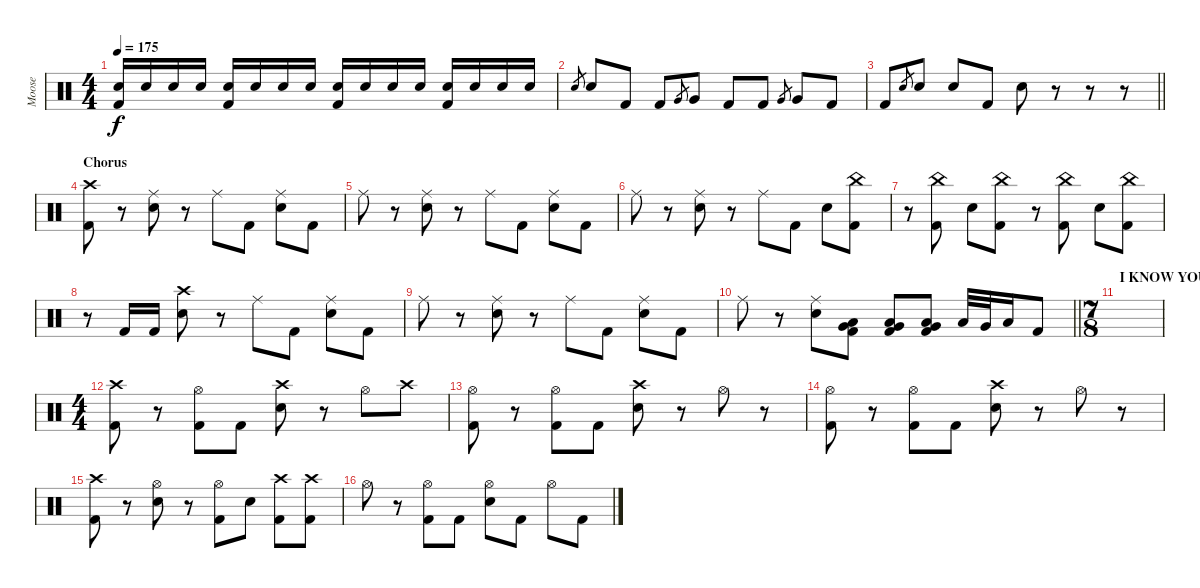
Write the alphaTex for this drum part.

\track ("Moose" "Moose") {instrument percussion}
\staff {score}
\articulation defaults
\ts (4 4)
\tempo 175
\clef neutral
\ks c
("Electric Snare (hit)" "Kick (hit) 2").16{dy f} "Electric Snare (hit)".16 "Electric Snare (hit)".16 "Electric Snare (hit)".16 ("Electric Snare (hit)" "Kick (hit) 2").16 "Electric Snare (hit)".16 "Electric Snare (hit)".16 "Electric Snare (hit)".16 ("Electric Snare (hit)" "Kick (hit) 2").16 "Electric Snare (hit)".16 "Electric Snare (hit)".16 "Electric Snare (hit)".16 ("Electric Snare (hit)" "Kick (hit) 2").16 "Electric Snare (hit)".16 "Electric Snare (hit)".16 "Electric Snare (hit)".16 |
"Electric Snare (hit)".8{gr} "Electric Snare (hit)".8 "Kick (hit) 2".8 "Kick (hit) 2".8 "Very Low Tom (hit)".8{gr} "Very Low Tom (hit)".8 "Kick (hit) 2".8 "Kick (hit) 2".8 "Very Low Tom (hit)".8{gr} "Very Low Tom (hit)".8 "Kick (hit) 2".8 |
\barLineRight lightlight "Kick (hit) 2".8 "Electric Snare (hit)".8{gr} "Electric Snare (hit)".8 "Electric Snare (hit)".8 "Kick (hit) 2".8 "Electric Snare (hit)".8
r.8 r.8 r.8 |
\section ("" "Chorus")
("Crash high (hit)" "Kick (hit) 2").8{volume 16} r.8 ("Ride (middle)" "Electric Snare (hit)").8 r.8 "Ride (middle)".8 "Kick (hit) 2".8 ("Ride (middle)" "Electric Snare (hit)").8 "Kick (hit) 2".8 |
"Ride (middle)".8 r.8 ("Ride (middle)" "Electric Snare (hit)").8 r.8 "Ride (middle)".8 "Kick (hit) 2".8 ("Ride (middle)" "Electric Snare (hit)").8 "Kick (hit) 2".8 |
"Ride (middle)".8 r.8 ("Ride (middle)" "Electric Snare (hit)").8 r.8 "Ride (middle)".8 "Kick (hit) 2".8 "Electric Snare (hit)".8 ("China (hit)" "Kick (hit) 2").8 |
r.8 ("China (hit)" "Kick (hit) 2").8 "Electric Snare (hit)".8 ("China (hit)" "Kick (hit) 2").8 r.8 ("China (hit)" "Kick (hit) 2").8 "Electric Snare (hit)".8 ("China (hit)" "Kick (hit) 2").8 |
r.8 "Kick (hit) 2".16 "Kick (hit) 2".16 ("Crash high (hit)" "Electric Snare (hit)").8 r.8 "Ride (middle)".8 "Kick (hit) 2".8 ("Ride (middle)" "Electric Snare (hit)").8 "Kick (hit) 2".8 |
"Ride (middle)".8 r.8 ("Ride (middle)" "Electric Snare (hit)").8 r.8 "Ride (middle)".8 "Kick (hit) 2".8 ("Ride (middle)" "Electric Snare (hit)").8 "Kick (hit) 2".8 |
\barLineRight lightlight "Ride (middle)".8
r.8 ("Ride (middle)" "Electric Snare (hit)").8 ("Low Floor Tom (hit)" "Very Low Tom (hit)" "Kick (hit) 2").8 ("Low Floor Tom (hit)" "Very Low Tom (hit)" "Kick (hit) 2").8 ("Low Floor Tom (hit)" "Very Low Tom (hit)" "Kick (hit) 2").8 "Low Tom (hit)".32 "Very Low Tom (hit)".32 "Low Floor Tom (hit)".16 "Kick (hit) 2".8 |
\ts (7 8)
\section ("" "I KNOW YOUR LISTENIN'!!")
|
\ts (4 4)
("Crash high (hit)" "Kick (hit) 2").8 r.8 ("Hi-Hat (open)" "Kick (hit) 2").8 "Kick (hit) 2".8 ("Crash high (hit)" "Electric Snare (hit)").8 r.8 "Hi-Hat (open)".8 "Crash high (hit)".8 |
("Hi-Hat (open)" "Kick (hit) 2").8 r.8 ("Hi-Hat (open)" "Kick (hit) 2").8 "Kick (hit) 2".8 ("Crash high (hit)" "Electric Snare (hit)").8 r.8 "Hi-Hat (open)".8 r.8 |
("Hi-Hat (open)" "Kick (hit) 2").8 r.8 ("Hi-Hat (open)" "Kick (hit) 2").8 "Kick (hit) 2".8 ("Crash high (hit)" "Electric Snare (hit)").8 r.8 "Hi-Hat (open)".8 r.8 |
("Crash high (hit)" "Kick (hit) 2").8 r.8 ("Hi-Hat (open)" "Electric Snare (hit)").8 r.8 ("Hi-Hat (open)" "Kick (hit) 2").8 "Electric Snare (hit)".8 ("Crash high (hit)" "Kick (hit) 2").8 ("Crash high (hit)" "Kick (hit) 2").8 |
"Hi-Hat (open)".8 r.8 ("Hi-Hat (open)" "Kick (hit) 2").8 "Kick (hit) 2".8 ("Hi-Hat (open)" "Electric Snare (hit)").8 "Kick (hit) 2".8 "Hi-Hat (open)".8 "Kick (hit) 2".8
